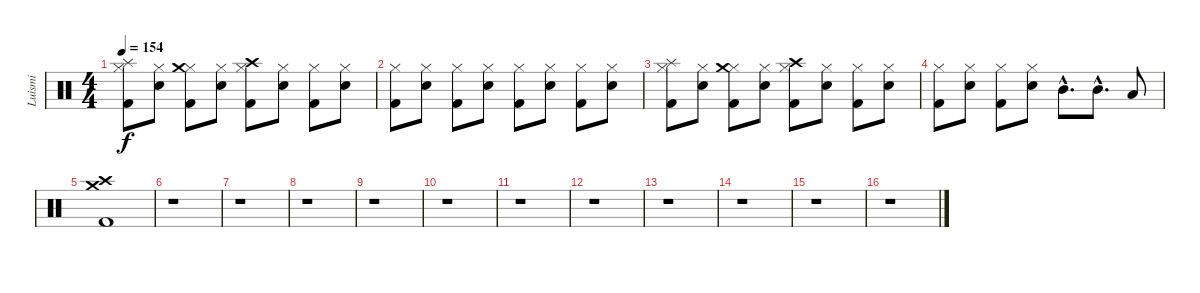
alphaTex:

\track ("Luismi" "Luismi") {instrument percussion}
\staff {score}
\articulation defaults
\ts (4 4)
\tempo 154
\clef neutral
\ks c
("Hi-Hat (closed)" "Kick (hit) 2" "Splash (hit)").8{dy f} ("Hi-Hat (closed)" "Snare (hit) 2").8 ("Hi-Hat (closed)" "Kick (hit) 2" "Crash medium (hit)").8 ("Hi-Hat (closed)" "Snare (hit) 2").8 ("Hi-Hat (closed)" "Kick (hit) 2" "Crash high (hit)").8 ("Hi-Hat (closed)" "Snare (hit) 2").8 ("Hi-Hat (closed)" "Kick (hit) 2").8 ("Hi-Hat (closed)" "Snare (hit) 2").8 |
("Hi-Hat (closed)" "Kick (hit) 2").8 ("Hi-Hat (closed)" "Snare (hit) 2").8 ("Hi-Hat (closed)" "Kick (hit) 2").8 ("Hi-Hat (closed)" "Snare (hit) 2").8 ("Hi-Hat (closed)" "Kick (hit) 2").8 ("Hi-Hat (closed)" "Snare (hit) 2").8 ("Hi-Hat (closed)" "Kick (hit) 2").8 ("Hi-Hat (closed)" "Snare (hit) 2").8 |
("Hi-Hat (closed)" "Kick (hit) 2" "Splash (hit)").8 ("Hi-Hat (closed)" "Snare (hit) 2").8 ("Hi-Hat (closed)" "Kick (hit) 2" "Crash medium (hit)").8 ("Hi-Hat (closed)" "Snare (hit) 2").8 ("Hi-Hat (closed)" "Kick (hit) 2" "Crash high (hit)").8 ("Hi-Hat (closed)" "Snare (hit) 2").8 ("Hi-Hat (closed)" "Kick (hit) 2").8 ("Hi-Hat (closed)" "Snare (hit) 2").8 |
("Kick (hit) 2" "Hi-Hat (closed)").8 ("Snare (hit) 2" "Hi-Hat (closed)").8 ("Kick (hit) 2" "Hi-Hat (closed)").8 ("Snare (hit) 2" "Hi-Hat (closed)").8 "Mid Tom (hit)"{hac}.8{d} "Mid Tom (hit)"{hac}.8{d} "Low Tom (hit)".8 |
("Kick (hit) 2" "Crash high (hit)" "Crash medium (hit)").1 |
r.1 |
r.1 |
r.1 |
r.1 |
r.1 |
r.1 |
r.1 |
r.1 |
r.1 |
r.1 |
r.1
